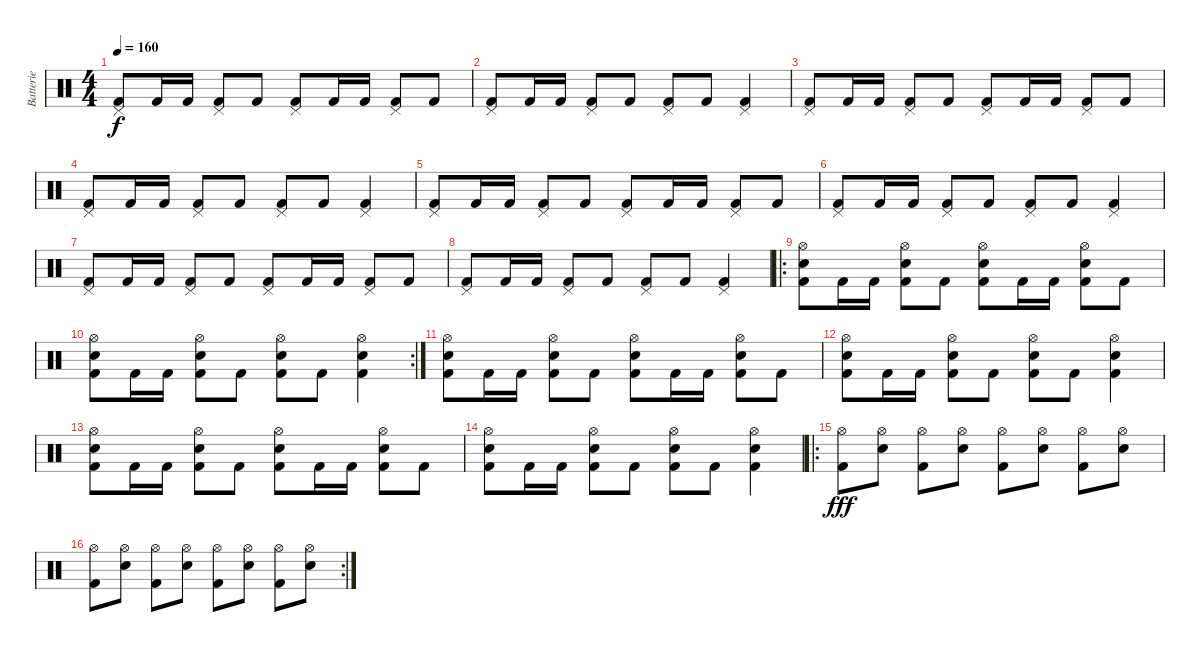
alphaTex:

\track ("Batterie" "Batterie") {instrument percussion}
\staff {score}
\articulation defaults
\ts (4 4)
\tempo 160
\clef neutral
\ks c
("Kick (hit) 2" "Pedal Hi-Hat (hit)").8{dy f} "Kick (hit) 2".16 "Kick (hit) 2".16 ("Kick (hit) 2" "Pedal Hi-Hat (hit)").8 "Kick (hit) 2".8 ("Kick (hit) 2" "Pedal Hi-Hat (hit)").8 "Kick (hit) 2".16 "Kick (hit) 2".16 ("Kick (hit) 2" "Pedal Hi-Hat (hit)").8 "Kick (hit) 2".8 |
("Kick (hit) 2" "Pedal Hi-Hat (hit)").8 "Kick (hit) 2".16 "Kick (hit) 2".16 ("Kick (hit) 2" "Pedal Hi-Hat (hit)").8 "Kick (hit) 2".8 ("Kick (hit) 2" "Pedal Hi-Hat (hit)").8 "Kick (hit) 2".8 ("Kick (hit) 2" "Pedal Hi-Hat (hit)").4 |
("Kick (hit) 2" "Pedal Hi-Hat (hit)").8 "Kick (hit) 2".16 "Kick (hit) 2".16 ("Kick (hit) 2" "Pedal Hi-Hat (hit)").8 "Kick (hit) 2".8 ("Kick (hit) 2" "Pedal Hi-Hat (hit)").8 "Kick (hit) 2".16 "Kick (hit) 2".16 ("Kick (hit) 2" "Pedal Hi-Hat (hit)").8 "Kick (hit) 2".8 |
("Kick (hit) 2" "Pedal Hi-Hat (hit)").8 "Kick (hit) 2".16 "Kick (hit) 2".16 ("Kick (hit) 2" "Pedal Hi-Hat (hit)").8 "Kick (hit) 2".8 ("Kick (hit) 2" "Pedal Hi-Hat (hit)").8 "Kick (hit) 2".8 ("Kick (hit) 2" "Pedal Hi-Hat (hit)").4 |
("Kick (hit) 2" "Pedal Hi-Hat (hit)").8 "Kick (hit) 2".16 "Kick (hit) 2".16 ("Kick (hit) 2" "Pedal Hi-Hat (hit)").8 "Kick (hit) 2".8 ("Kick (hit) 2" "Pedal Hi-Hat (hit)").8 "Kick (hit) 2".16 "Kick (hit) 2".16 ("Kick (hit) 2" "Pedal Hi-Hat (hit)").8 "Kick (hit) 2".8 |
("Kick (hit) 2" "Pedal Hi-Hat (hit)").8 "Kick (hit) 2".16 "Kick (hit) 2".16 ("Kick (hit) 2" "Pedal Hi-Hat (hit)").8 "Kick (hit) 2".8 ("Kick (hit) 2" "Pedal Hi-Hat (hit)").8 "Kick (hit) 2".8 ("Kick (hit) 2" "Pedal Hi-Hat (hit)").4 |
("Kick (hit) 2" "Pedal Hi-Hat (hit)").8 "Kick (hit) 2".16 "Kick (hit) 2".16 ("Kick (hit) 2" "Pedal Hi-Hat (hit)").8 "Kick (hit) 2".8 ("Kick (hit) 2" "Pedal Hi-Hat (hit)").8 "Kick (hit) 2".16 "Kick (hit) 2".16 ("Kick (hit) 2" "Pedal Hi-Hat (hit)").8 "Kick (hit) 2".8 |
("Kick (hit) 2" "Pedal Hi-Hat (hit)").8 "Kick (hit) 2".16 "Kick (hit) 2".16 ("Kick (hit) 2" "Pedal Hi-Hat (hit)").8 "Kick (hit) 2".8 ("Kick (hit) 2" "Pedal Hi-Hat (hit)").8 "Kick (hit) 2".8 ("Kick (hit) 2" "Pedal Hi-Hat (hit)").4 |
\ro
("Kick (hit) 2" "Electric Snare (hit)" "Hi-Hat (open)").8 "Kick (hit) 2".16 "Kick (hit) 2".16 ("Kick (hit) 2" "Electric Snare (hit)" "Hi-Hat (open)").8 "Kick (hit) 2".8 ("Kick (hit) 2" "Electric Snare (hit)" "Hi-Hat (open)").8 "Kick (hit) 2".16 "Kick (hit) 2".16 ("Kick (hit) 2" "Electric Snare (hit)" "Hi-Hat (open)").8 "Kick (hit) 2".8 |
\rc 2
("Kick (hit) 2" "Electric Snare (hit)" "Hi-Hat (open)").8 "Kick (hit) 2".16 "Kick (hit) 2".16 ("Kick (hit) 2" "Electric Snare (hit)" "Hi-Hat (open)").8 "Kick (hit) 2".8 ("Kick (hit) 2" "Electric Snare (hit)" "Hi-Hat (open)").8 "Kick (hit) 2".8 ("Kick (hit) 2" "Electric Snare (hit)" "Hi-Hat (open)").4 |
("Kick (hit) 2" "Electric Snare (hit)" "Hi-Hat (open)").8 "Kick (hit) 2".16 "Kick (hit) 2".16 ("Kick (hit) 2" "Electric Snare (hit)" "Hi-Hat (open)").8 "Kick (hit) 2".8 ("Kick (hit) 2" "Electric Snare (hit)" "Hi-Hat (open)").8 "Kick (hit) 2".16 "Kick (hit) 2".16 ("Kick (hit) 2" "Electric Snare (hit)" "Hi-Hat (open)").8 "Kick (hit) 2".8 |
("Kick (hit) 2" "Electric Snare (hit)" "Hi-Hat (open)").8 "Kick (hit) 2".16 "Kick (hit) 2".16 ("Kick (hit) 2" "Electric Snare (hit)" "Hi-Hat (open)").8 "Kick (hit) 2".8 ("Kick (hit) 2" "Electric Snare (hit)" "Hi-Hat (open)").8 "Kick (hit) 2".8 ("Kick (hit) 2" "Electric Snare (hit)" "Hi-Hat (open)").4 |
("Kick (hit) 2" "Electric Snare (hit)" "Hi-Hat (open)").8 "Kick (hit) 2".16 "Kick (hit) 2".16 ("Kick (hit) 2" "Electric Snare (hit)" "Hi-Hat (open)").8 "Kick (hit) 2".8 ("Kick (hit) 2" "Electric Snare (hit)" "Hi-Hat (open)").8 "Kick (hit) 2".16 "Kick (hit) 2".16 ("Kick (hit) 2" "Electric Snare (hit)" "Hi-Hat (open)").8 "Kick (hit) 2".8 |
("Kick (hit) 2" "Electric Snare (hit)" "Hi-Hat (open)").8 "Kick (hit) 2".16 "Kick (hit) 2".16 ("Kick (hit) 2" "Electric Snare (hit)" "Hi-Hat (open)").8 "Kick (hit) 2".8 ("Kick (hit) 2" "Electric Snare (hit)" "Hi-Hat (open)").8 "Kick (hit) 2".8 ("Kick (hit) 2" "Electric Snare (hit)" "Hi-Hat (open)").4 |
\ro
("Kick (hit) 2" "Hi-Hat (open)").8{dy fff} ("Electric Snare (hit)" "Hi-Hat (open)").8 ("Kick (hit) 2" "Hi-Hat (open)").8 ("Electric Snare (hit)" "Hi-Hat (open)").8 ("Kick (hit) 2" "Hi-Hat (open)").8 ("Electric Snare (hit)" "Hi-Hat (open)").8 ("Kick (hit) 2" "Hi-Hat (open)").8 ("Electric Snare (hit)" "Hi-Hat (open)").8 |
\rc 2
("Kick (hit) 2" "Hi-Hat (open)").8 ("Electric Snare (hit)" "Hi-Hat (open)").8 ("Kick (hit) 2" "Hi-Hat (open)").8 ("Electric Snare (hit)" "Hi-Hat (open)").8 ("Kick (hit) 2" "Hi-Hat (open)").8 ("Electric Snare (hit)" "Hi-Hat (open)").8 ("Kick (hit) 2" "Hi-Hat (open)").8 ("Electric Snare (hit)" "Hi-Hat (open)").8
